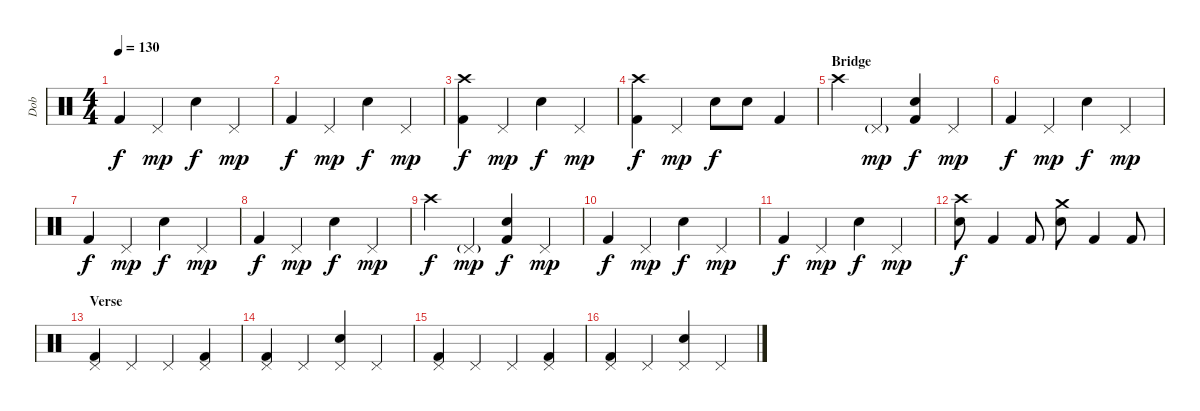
\track ("Dob" "Dob") {instrument percussion}
\staff {score}
\articulation defaults
\ts (4 4)
\tempo 130
\clef neutral
\ks c "Kick (hit) 2".4{dy f} "Pedal Hi-Hat (hit)".4{dy mp} "Snare (hit) 2".4{dy f} "Pedal Hi-Hat (hit)".4{dy mp}
|
"Kick (hit) 2".4{dy f} "Pedal Hi-Hat (hit)".4{dy mp} "Snare (hit) 2".4{dy f} "Pedal Hi-Hat (hit)".4{dy mp} |
("Crash high (hit)" "Kick (hit) 2").4{dy f} "Pedal Hi-Hat (hit)".4{dy mp} "Snare (hit) 2".4{dy f} "Pedal Hi-Hat (hit)".4{dy mp} |
("Crash high (hit)" "Kick (hit) 2").4{dy f} "Pedal Hi-Hat (hit)".4{dy mp} "Snare (hit) 2".8{dy f} "Snare (hit) 2".8 "Kick (hit) 2".4 |
\section ("" "Bridge")
"Crash high (hit)".4 "Pedal Hi-Hat (hit)"{g}.4{dy mp} ("Kick (hit) 2" "Snare (hit) 2").4{dy f} "Pedal Hi-Hat (hit)".4{dy mp} |
"Kick (hit) 2".4{dy f} "Pedal Hi-Hat (hit)".4{dy mp} "Snare (hit) 2".4{dy f} "Pedal Hi-Hat (hit)".4{dy mp} |
"Kick (hit) 2".4{dy f} "Pedal Hi-Hat (hit)".4{dy mp} "Snare (hit) 2".4{dy f} "Pedal Hi-Hat (hit)".4{dy mp} |
"Kick (hit) 2".4{dy f} "Pedal Hi-Hat (hit)".4{dy mp} "Snare (hit) 2".4{dy f} "Pedal Hi-Hat (hit)".4{dy mp} |
"Crash high (hit)".4{dy f} "Pedal Hi-Hat (hit)"{g}.4{dy mp} ("Kick (hit) 2" "Snare (hit) 2").4{dy f} "Pedal Hi-Hat (hit)".4{dy mp} |
"Kick (hit) 2".4{dy f} "Pedal Hi-Hat (hit)".4{dy mp} "Snare (hit) 2".4{dy f} "Pedal Hi-Hat (hit)".4{dy mp} |
"Kick (hit) 2".4{dy f} "Pedal Hi-Hat (hit)".4{dy mp} "Snare (hit) 2".4{dy f} "Pedal Hi-Hat (hit)".4{dy mp} |
("Crash high (hit)" "Snare (hit) 2").8{dy f} "Kick (hit) 2".4 "Kick (hit) 2".8 ("Crash medium (hit)" "Snare (hit) 2").8 "Kick (hit) 2".4 "Kick (hit) 2".8 |
\section ("" "Verse")
("Pedal Hi-Hat (hit)" "Kick (hit) 2").4 "Pedal Hi-Hat (hit)".4 "Pedal Hi-Hat (hit)".4 ("Pedal Hi-Hat (hit)" "Kick (hit) 2").4 |
("Pedal Hi-Hat (hit)" "Kick (hit) 2").4 "Pedal Hi-Hat (hit)".4 ("Pedal Hi-Hat (hit)" "Snare (hit) 2").4 "Pedal Hi-Hat (hit)".4 |
("Pedal Hi-Hat (hit)" "Kick (hit) 2").4 "Pedal Hi-Hat (hit)".4 "Pedal Hi-Hat (hit)".4 ("Pedal Hi-Hat (hit)" "Kick (hit) 2").4 |
("Pedal Hi-Hat (hit)" "Kick (hit) 2").4 "Pedal Hi-Hat (hit)".4 ("Pedal Hi-Hat (hit)" "Snare (hit) 2").4 "Pedal Hi-Hat (hit)".4
